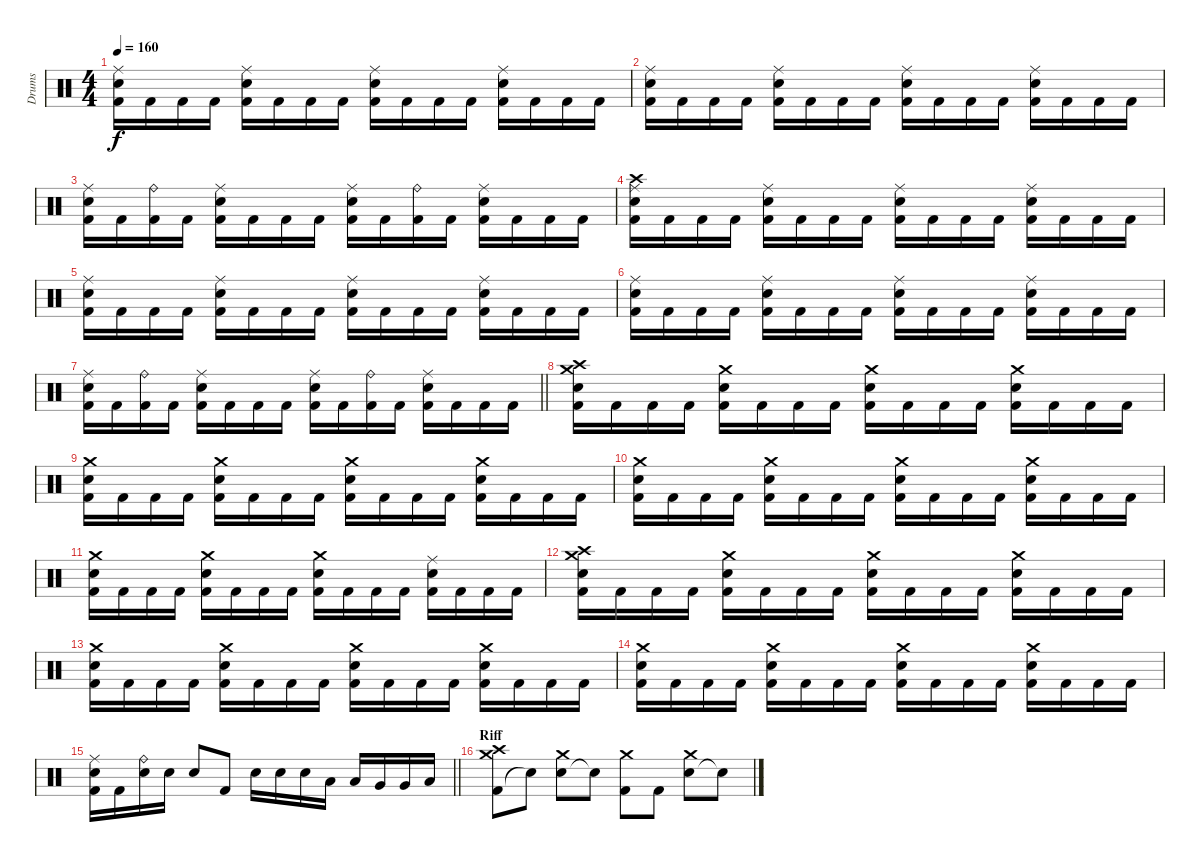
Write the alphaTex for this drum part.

\track ("Drums" "Drums") {instrument percussion}
\staff {score}
\articulation defaults
\ts (4 4)
\tempo 160
\clef neutral
\ks c
("Snare (hit) 2" "Kick (hit) 2" "Ride (middle)").16{dy f} "Kick (hit) 2".16 "Kick (hit) 2".16 "Kick (hit) 2".16 ("Snare (hit) 2" "Kick (hit) 2" "Ride (middle)").16 "Kick (hit) 2".16 "Kick (hit) 2".16 "Kick (hit) 2".16 ("Snare (hit) 2" "Kick (hit) 2" "Ride (middle)").16 "Kick (hit) 2".16 "Kick (hit) 2".16 "Kick (hit) 2".16 ("Snare (hit) 2" "Kick (hit) 2" "Ride (middle)").16 "Kick (hit) 2".16 "Kick (hit) 2".16 "Kick (hit) 2".16 |
("Snare (hit) 2" "Kick (hit) 2" "Ride (middle)").16 "Kick (hit) 2".16 "Kick (hit) 2".16 "Kick (hit) 2".16 ("Snare (hit) 2" "Kick (hit) 2" "Ride (middle)").16 "Kick (hit) 2".16 "Kick (hit) 2".16 "Kick (hit) 2".16 ("Snare (hit) 2" "Kick (hit) 2" "Ride (middle)").16 "Kick (hit) 2".16 "Kick (hit) 2".16 "Kick (hit) 2".16 ("Snare (hit) 2" "Kick (hit) 2" "Ride (middle)").16 "Kick (hit) 2".16 "Kick (hit) 2".16 "Kick (hit) 2".16 |
("Snare (hit) 2" "Kick (hit) 2" "Ride (middle)").16 "Kick (hit) 2".16 ("Kick (hit) 2" "Ride (bell)").16 "Kick (hit) 2".16 ("Snare (hit) 2" "Kick (hit) 2" "Ride (middle)").16 "Kick (hit) 2".16 "Kick (hit) 2".16 "Kick (hit) 2".16 ("Snare (hit) 2" "Kick (hit) 2" "Ride (middle)").16 "Kick (hit) 2".16 ("Kick (hit) 2" "Ride (bell)").16 "Kick (hit) 2".16 ("Snare (hit) 2" "Kick (hit) 2" "Ride (middle)").16 "Kick (hit) 2".16 "Kick (hit) 2".16 "Kick (hit) 2".16 |
("Snare (hit) 2" "Kick (hit) 2" "Ride (middle)" "Crash high (hit)").16 "Kick (hit) 2".16 "Kick (hit) 2".16 "Kick (hit) 2".16 ("Snare (hit) 2" "Kick (hit) 2" "Ride (middle)").16 "Kick (hit) 2".16 "Kick (hit) 2".16 "Kick (hit) 2".16 ("Snare (hit) 2" "Kick (hit) 2" "Ride (middle)").16 "Kick (hit) 2".16 "Kick (hit) 2".16 "Kick (hit) 2".16 ("Snare (hit) 2" "Kick (hit) 2" "Ride (middle)").16 "Kick (hit) 2".16 "Kick (hit) 2".16 "Kick (hit) 2".16 |
("Snare (hit) 2" "Kick (hit) 2" "Ride (middle)").16 "Kick (hit) 2".16 "Kick (hit) 2".16 "Kick (hit) 2".16 ("Snare (hit) 2" "Kick (hit) 2" "Ride (middle)").16 "Kick (hit) 2".16 "Kick (hit) 2".16 "Kick (hit) 2".16 ("Snare (hit) 2" "Kick (hit) 2" "Ride (middle)").16 "Kick (hit) 2".16 "Kick (hit) 2".16 "Kick (hit) 2".16 ("Snare (hit) 2" "Kick (hit) 2" "Ride (middle)").16 "Kick (hit) 2".16 "Kick (hit) 2".16 "Kick (hit) 2".16 |
("Snare (hit) 2" "Kick (hit) 2" "Ride (middle)").16 "Kick (hit) 2".16 "Kick (hit) 2".16 "Kick (hit) 2".16 ("Snare (hit) 2" "Kick (hit) 2" "Ride (middle)").16 "Kick (hit) 2".16 "Kick (hit) 2".16 "Kick (hit) 2".16 ("Snare (hit) 2" "Kick (hit) 2" "Ride (middle)").16 "Kick (hit) 2".16 "Kick (hit) 2".16 "Kick (hit) 2".16 ("Snare (hit) 2" "Kick (hit) 2" "Ride (middle)").16 "Kick (hit) 2".16 "Kick (hit) 2".16 "Kick (hit) 2".16 |
\barLineRight lightlight
("Snare (hit) 2" "Kick (hit) 2" "Ride (middle)").16 "Kick (hit) 2".16 ("Kick (hit) 2" "Ride (bell)").16 "Kick (hit) 2".16 ("Snare (hit) 2" "Kick (hit) 2" "Ride (middle)").16 "Kick (hit) 2".16 "Kick (hit) 2".16 "Kick (hit) 2".16 ("Snare (hit) 2" "Kick (hit) 2" "Ride (middle)").16 "Kick (hit) 2".16 ("Kick (hit) 2" "Ride (bell)").16 "Kick (hit) 2".16 ("Snare (hit) 2" "Kick (hit) 2" "Ride (middle)").16 "Kick (hit) 2".16 "Kick (hit) 2".16 "Kick (hit) 2".16 |
("Snare (hit) 2" "Kick (hit) 2" "Crash medium (hit)" "Crash high (hit)").16 "Kick (hit) 2".16 "Kick (hit) 2".16 "Kick (hit) 2".16 ("Snare (hit) 2" "Kick (hit) 2" "Crash medium (hit)").16 "Kick (hit) 2".16 "Kick (hit) 2".16 "Kick (hit) 2".16 ("Snare (hit) 2" "Kick (hit) 2" "Crash medium (hit)").16 "Kick (hit) 2".16 "Kick (hit) 2".16 "Kick (hit) 2".16 ("Snare (hit) 2" "Kick (hit) 2" "Crash medium (hit)").16 "Kick (hit) 2".16 "Kick (hit) 2".16 "Kick (hit) 2".16 |
("Snare (hit) 2" "Kick (hit) 2" "Crash medium (hit)").16 "Kick (hit) 2".16 "Kick (hit) 2".16 "Kick (hit) 2".16 ("Snare (hit) 2" "Kick (hit) 2" "Crash medium (hit)").16 "Kick (hit) 2".16 "Kick (hit) 2".16 "Kick (hit) 2".16 ("Snare (hit) 2" "Kick (hit) 2" "Crash medium (hit)").16 "Kick (hit) 2".16 "Kick (hit) 2".16 "Kick (hit) 2".16 ("Snare (hit) 2" "Kick (hit) 2" "Crash medium (hit)").16 "Kick (hit) 2".16 "Kick (hit) 2".16 "Kick (hit) 2".16 |
("Snare (hit) 2" "Kick (hit) 2" "Crash medium (hit)").16 "Kick (hit) 2".16 "Kick (hit) 2".16 "Kick (hit) 2".16 ("Snare (hit) 2" "Kick (hit) 2" "Crash medium (hit)").16 "Kick (hit) 2".16 "Kick (hit) 2".16 "Kick (hit) 2".16 ("Snare (hit) 2" "Kick (hit) 2" "Crash medium (hit)").16 "Kick (hit) 2".16 "Kick (hit) 2".16 "Kick (hit) 2".16 ("Snare (hit) 2" "Kick (hit) 2" "Crash medium (hit)").16 "Kick (hit) 2".16 "Kick (hit) 2".16 "Kick (hit) 2".16 |
("Snare (hit) 2" "Kick (hit) 2" "Crash medium (hit)").16 "Kick (hit) 2".16 "Kick (hit) 2".16 "Kick (hit) 2".16 ("Snare (hit) 2" "Kick (hit) 2" "Crash medium (hit)").16 "Kick (hit) 2".16 "Kick (hit) 2".16 "Kick (hit) 2".16 ("Snare (hit) 2" "Kick (hit) 2" "Crash medium (hit)").16 "Kick (hit) 2".16 "Kick (hit) 2".16 "Kick (hit) 2".16 ("Snare (hit) 2" "Kick (hit) 2" "Ride (middle)").16 "Kick (hit) 2".16 "Kick (hit) 2".16 "Kick (hit) 2".16 |
("Snare (hit) 2" "Kick (hit) 2" "Crash medium (hit)" "Crash high (hit)").16 "Kick (hit) 2".16 "Kick (hit) 2".16 "Kick (hit) 2".16 ("Snare (hit) 2" "Kick (hit) 2" "Crash medium (hit)").16 "Kick (hit) 2".16 "Kick (hit) 2".16 "Kick (hit) 2".16 ("Snare (hit) 2" "Kick (hit) 2" "Crash medium (hit)").16 "Kick (hit) 2".16 "Kick (hit) 2".16 "Kick (hit) 2".16 ("Snare (hit) 2" "Kick (hit) 2" "Crash medium (hit)").16 "Kick (hit) 2".16 "Kick (hit) 2".16 "Kick (hit) 2".16 |
("Snare (hit) 2" "Kick (hit) 2" "Crash medium (hit)").16 "Kick (hit) 2".16 "Kick (hit) 2".16 "Kick (hit) 2".16 ("Snare (hit) 2" "Kick (hit) 2" "Crash medium (hit)").16 "Kick (hit) 2".16 "Kick (hit) 2".16 "Kick (hit) 2".16 ("Snare (hit) 2" "Kick (hit) 2" "Crash medium (hit)").16 "Kick (hit) 2".16 "Kick (hit) 2".16 "Kick (hit) 2".16 ("Snare (hit) 2" "Kick (hit) 2" "Crash medium (hit)").16 "Kick (hit) 2".16 "Kick (hit) 2".16 "Kick (hit) 2".16 |
("Snare (hit) 2" "Kick (hit) 2" "Crash medium (hit)").16 "Kick (hit) 2".16 "Kick (hit) 2".16 "Kick (hit) 2".16 ("Snare (hit) 2" "Kick (hit) 2" "Crash medium (hit)").16 "Kick (hit) 2".16 "Kick (hit) 2".16 "Kick (hit) 2".16 ("Snare (hit) 2" "Kick (hit) 2" "Crash medium (hit)").16 "Kick (hit) 2".16 "Kick (hit) 2".16 "Kick (hit) 2".16 ("Snare (hit) 2" "Kick (hit) 2" "Crash medium (hit)").16 "Kick (hit) 2".16 "Kick (hit) 2".16 "Kick (hit) 2".16 |
\barLineRight lightlight
("Snare (hit) 2" "Kick (hit) 2" "Ride (middle)").16 "Kick (hit) 2".16 ("Snare (hit) 2" "Ride (bell)").16 "Snare (hit) 2".16 "Snare (hit) 2".8 "Kick (hit) 2".8 "Snare (hit) 2".16 "Snare (hit) 2".16 "Snare (hit) 2".16 "Low Tom (hit)".16 "Low Tom (hit)".16 "Very Low Tom (hit)".16 "Very Low Tom (hit)".16 "Low Floor Tom (hit)".16 |
\section ("" "Riff")
("Kick (hit) 2" "Crash medium (hit)" "Crash high (hit)").8 "Snare (hit)"{t}.8 ("Snare (hit) 2" "Crash medium (hit)").8 "Snare (hit)"{t}.8 ("Kick (hit) 2" "Crash medium (hit)").8 "Kick (hit) 2".8 ("Snare (hit) 2" "Crash medium (hit)").8 "Snare (hit)"{t}.8
